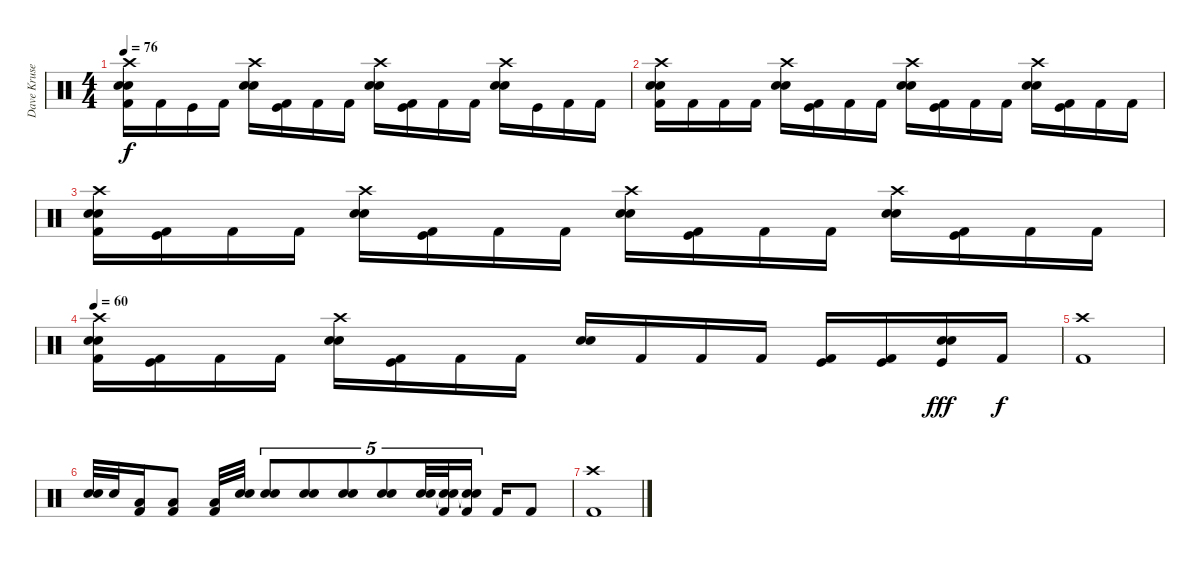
\track ("Dave Krusen" "Dave Kruse") {instrument percussion}
\staff {score}
\articulation defaults
\ts (4 4)
\tempo 76
\clef neutral
\ks c
("Crash high (hit)" "Electric Snare (hit)" "Electric Snare (hit)" "Kick (hit) 2").16{dy f} "Kick (hit) 2".16 "Kick (hit)".16 "Kick (hit) 2".16 ("Crash high (hit)" "Electric Snare (hit)" "Electric Snare (hit)").16 ("Kick (hit)" "Kick (hit) 2").16 "Kick (hit) 2".16 "Kick (hit) 2".16 ("Crash high (hit)" "Electric Snare (hit)" "Electric Snare (hit)").16 ("Kick (hit)" "Kick (hit) 2").16 "Kick (hit) 2".16 "Kick (hit) 2".16 ("Crash high (hit)" "Electric Snare (hit)" "Electric Snare (hit)").16 "Kick (hit)".16 "Kick (hit) 2".16 "Kick (hit) 2".16 |
("Crash high (hit)" "Electric Snare (hit)" "Electric Snare (hit)" "Kick (hit) 2").16 "Kick (hit) 2".16 "Kick (hit) 2".16 "Kick (hit) 2".16 ("Crash high (hit)" "Electric Snare (hit)" "Electric Snare (hit)").16 ("Kick (hit)" "Kick (hit) 2").16 "Kick (hit) 2".16 "Kick (hit) 2".16 ("Crash high (hit)" "Electric Snare (hit)" "Electric Snare (hit)").16 ("Kick (hit)" "Kick (hit) 2").16 "Kick (hit) 2".16 "Kick (hit) 2".16 ("Crash high (hit)" "Electric Snare (hit)" "Electric Snare (hit)").16 ("Kick (hit)" "Kick (hit) 2").16 "Kick (hit) 2".16 "Kick (hit) 2".16 |
("Crash high (hit)" "Electric Snare (hit)" "Electric Snare (hit)" "Kick (hit) 2").16 ("Kick (hit)" "Kick (hit) 2").16 "Kick (hit) 2".16 "Kick (hit) 2".16 ("Crash high (hit)" "Electric Snare (hit)" "Electric Snare (hit)").16 ("Kick (hit)" "Kick (hit) 2").16 "Kick (hit) 2".16 "Kick (hit) 2".16 ("Crash high (hit)" "Electric Snare (hit)" "Electric Snare (hit)").16 ("Kick (hit)" "Kick (hit) 2").16 "Kick (hit) 2".16 "Kick (hit) 2".16 ("Crash high (hit)" "Electric Snare (hit)" "Electric Snare (hit)").16 ("Kick (hit)" "Kick (hit) 2").16 "Kick (hit) 2".16 "Kick (hit) 2".16 |
\tempo 60
("Crash high (hit)" "Electric Snare (hit)" "Electric Snare (hit)" "Kick (hit) 2").16 ("Kick (hit)" "Kick (hit) 2").16 "Kick (hit) 2".16 "Kick (hit) 2".16 ("Crash high (hit)" "Electric Snare (hit)" "Electric Snare (hit)").16 ("Kick (hit)" "Kick (hit) 2").16 "Kick (hit) 2".16 "Kick (hit) 2".16 ("Electric Snare (hit)" "Electric Snare (hit)").16 "Kick (hit) 2".16 "Kick (hit) 2".16 "Kick (hit) 2".16 ("Kick (hit)" "Kick (hit) 2").16 ("Kick (hit)" "Kick (hit) 2").16 ("Electric Snare (hit)" "Electric Snare (hit)" "Kick (hit)").16{bd 60 dy fff} "Kick (hit) 2".16{dy f} |
("Crash high (hit)" "Kick (hit) 2").1 |
("Electric Snare (hit)" "Electric Snare (hit)").32 "Electric Snare (hit)".32 ("Low Floor Tom (hit)" "Kick (hit) 2").16 ("Low Floor Tom (hit)" "Kick (hit) 2").8 ("Low Floor Tom (hit)" "Kick (hit) 2").32 ("Electric Snare (hit)" "Electric Snare (hit)").32 ("Electric Snare (hit)" "Electric Snare (hit)").8{tu (5 4)} ("Electric Snare (hit)" "Electric Snare (hit)").8{tu (5 4)} ("Electric Snare (hit)" "Electric Snare (hit)").8{tu (5 4)} ("Electric Snare (hit)" "Electric Snare (hit)").8{tu (5 4)} ("Electric Snare (hit)" "Electric Snare (hit)").32{tu (5 4)} ("Electric Snare (hit)"{t} "Electric Snare (hit)"{t} "Kick (hit) 2").32{tu (5 4)} ("Electric Snare (hit)"{t} "Electric Snare (hit)"{t} "Kick (hit) 2").16{tu (5 4) beam splitsecondary} "Kick (hit) 2".16 "Kick (hit) 2".8 |
("Crash high (hit)" "Kick (hit) 2").1
